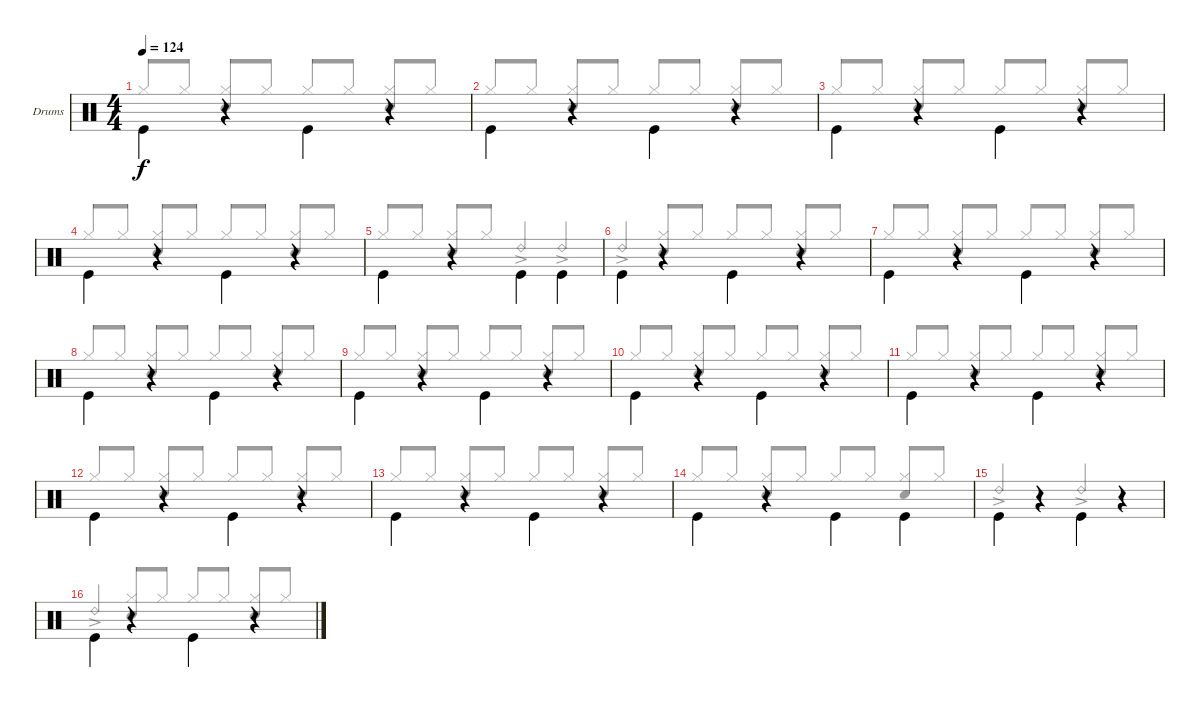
\bracketExtendMode groupsimilarinstruments
\firstSystemTrackNameOrientation horizontal
\otherSystemsTrackNameOrientation horizontal
\track ("Drums" "Drums") {instrument percussion}
\staff {score}
\articulation defaults
\voice
\ts (4 4)
\tempo 124
\clef neutral
\scale
1.02648
\ks c "Kick (hit)".4{dy f beam invert}
r.4 "Kick (hit)".4{beam invert} r.4 |
\scale
0.973518 "Kick (hit)".4{beam invert} r.4 "Kick (hit)".4{beam invert} r.4 |
\scale
1.02648 "Kick (hit)".4{beam invert} r.4 "Kick (hit)".4{beam invert} r.4 |
\scale
0.973518 "Kick (hit)".4{beam invert} r.4 "Kick (hit)".4{beam invert} r.4 |
\scale
1.02648 "Kick (hit)".4{beam invert} r.4 "Kick (hit)".4{beam invert} "Kick (hit)".4{beam invert} |
\scale
0.973518 "Kick (hit)".4{beam invert} r.4 "Kick (hit)".4{beam invert} r.4 |
\scale
1.02648 "Kick (hit)".4{beam invert} r.4 "Kick (hit)".4{beam invert} r.4 |
\scale
0.973518 "Kick (hit)".4{beam invert} r.4 "Kick (hit)".4{beam invert} r.4 |
\scale
1.02648 "Kick (hit)".4{beam invert} r.4 "Kick (hit)".4{beam invert} r.4 |
\scale
0.973518 "Kick (hit)".4{beam invert} r.4 "Kick (hit)".4{beam invert} r.4 |
\scale
1.02648 "Kick (hit)".4{beam invert} r.4 "Kick (hit)".4{beam invert} r.4 |
\scale
0.973518 "Kick (hit)".4{beam invert} r.4 "Kick (hit)".4{beam invert} r.4 |
\scale
1.02648 "Kick (hit)".4{beam invert} r.4 "Kick (hit)".4{beam invert} r.4 |
\scale
0.973518 "Kick (hit)".4{beam invert} r.4 "Kick (hit)".4{beam invert} "Kick (hit)".4{beam invert} |
\scale
1.02648 "Kick (hit)".4{beam invert} r.4 "Kick (hit)".4{beam invert} r.4 |
\scale
0.973518 "Kick (hit)".4{beam invert} r.4 "Kick (hit)".4{beam invert} r.4
\voice
\clef neutral
\ottava regular
\simile none
\scale
1.02648
\ks c "Hi-Hat (closed)".8{dy f beam invert} "Hi-Hat (closed)".8
("Hi-Hat (closed)" "Snare (hit) 2").8{beam invert} "Hi-Hat (closed)".8 "Hi-Hat (closed)".8{beam invert} "Hi-Hat (closed)".8 ("Hi-Hat (closed)" "Snare (hit) 2").8{beam invert} "Hi-Hat (closed)".8 |
\scale
0.973518 "Hi-Hat (closed)".8{beam invert} "Hi-Hat (closed)".8 ("Hi-Hat (closed)" "Snare (hit) 2").8{beam invert} "Hi-Hat (closed)".8 "Hi-Hat (closed)".8{beam invert} "Hi-Hat (closed)".8 ("Hi-Hat (closed)" "Snare (hit) 2").8{beam invert} "Hi-Hat (closed)".8 |
\scale
1.02648 "Hi-Hat (closed)".8{beam invert} "Hi-Hat (closed)".8 ("Hi-Hat (closed)" "Snare (hit) 2").8{beam invert} "Hi-Hat (closed)".8 "Hi-Hat (closed)".8{beam invert} "Hi-Hat (closed)".8 ("Hi-Hat (closed)" "Snare (hit) 2").8{beam invert} "Hi-Hat (closed)".8 |
\scale
0.973518 "Hi-Hat (closed)".8{beam invert} "Hi-Hat (closed)".8 ("Hi-Hat (closed)" "Snare (hit) 2").8{beam invert} "Hi-Hat (closed)".8 "Hi-Hat (closed)".8{beam invert} "Hi-Hat (closed)".8 ("Hi-Hat (closed)" "Snare (hit) 2").8{beam invert} "Hi-Hat (closed)".8 |
\scale
1.02648 "Hi-Hat (closed)".8{beam invert} "Hi-Hat (closed)".8 ("Hi-Hat (closed)" "Snare (hit) 2").8{beam invert} "Hi-Hat (closed)".8 "Ride (bell) 2"{ac}.4{beam invert} "Ride (bell) 2"{ac}.4{beam invert} |
\scale
0.973518 "Ride (bell) 2"{ac}.4{beam invert} ("Hi-Hat (closed)" "Snare (hit) 2").8{beam invert} "Hi-Hat (closed)".8 "Hi-Hat (closed)".8{beam invert} "Hi-Hat (closed)".8 ("Hi-Hat (closed)" "Snare (hit) 2").8{beam invert} "Hi-Hat (closed)".8 |
\scale
1.02648 "Hi-Hat (closed)".8{beam invert} "Hi-Hat (closed)".8 ("Hi-Hat (closed)" "Snare (hit) 2").8{beam invert} "Hi-Hat (closed)".8 "Hi-Hat (closed)".8{beam invert} "Hi-Hat (closed)".8 ("Hi-Hat (closed)" "Snare (hit) 2").8{beam invert} "Hi-Hat (closed)".8 |
\scale
0.973518 "Hi-Hat (closed)".8{beam invert} "Hi-Hat (closed)".8 ("Hi-Hat (closed)" "Snare (hit) 2").8{beam invert} "Hi-Hat (closed)".8 "Hi-Hat (closed)".8{beam invert} "Hi-Hat (closed)".8 ("Hi-Hat (closed)" "Snare (hit) 2").8{beam invert} "Hi-Hat (closed)".8 |
\scale
1.02648 "Hi-Hat (closed)".8{beam invert} "Hi-Hat (closed)".8 ("Hi-Hat (closed)" "Snare (hit) 2").8{beam invert} "Hi-Hat (closed)".8 "Hi-Hat (closed)".8{beam invert} "Hi-Hat (closed)".8 ("Hi-Hat (closed)" "Snare (hit) 2").8{beam invert} "Hi-Hat (closed)".8 |
\scale
0.973518 "Hi-Hat (closed)".8{beam invert} "Hi-Hat (closed)".8 ("Hi-Hat (closed)" "Snare (hit) 2").8{beam invert} "Hi-Hat (closed)".8 "Hi-Hat (closed)".8{beam invert} "Hi-Hat (closed)".8 ("Hi-Hat (closed)" "Snare (hit) 2").8{beam invert} "Hi-Hat (closed)".8 |
\scale
1.02648 "Hi-Hat (closed)".8{beam invert} "Hi-Hat (closed)".8 ("Hi-Hat (closed)" "Snare (hit) 2").8{beam invert} "Hi-Hat (closed)".8 "Hi-Hat (closed)".8{beam invert} "Hi-Hat (closed)".8 ("Hi-Hat (closed)" "Snare (hit) 2").8{beam invert} "Hi-Hat (closed)".8 |
\scale
0.973518 "Hi-Hat (closed)".8{beam invert} "Hi-Hat (closed)".8 ("Hi-Hat (closed)" "Snare (hit) 2").8{beam invert} "Hi-Hat (closed)".8 "Hi-Hat (closed)".8{beam invert} "Hi-Hat (closed)".8 ("Hi-Hat (closed)" "Snare (hit) 2").8{beam invert} "Hi-Hat (closed)".8 |
\scale
1.02648 "Hi-Hat (closed)".8{beam invert} "Hi-Hat (closed)".8 ("Hi-Hat (closed)" "Snare (hit) 2").8{beam invert} "Hi-Hat (closed)".8 "Hi-Hat (closed)".8{beam invert} "Hi-Hat (closed)".8 ("Hi-Hat (closed)" "Snare (hit) 2").8{beam invert} "Hi-Hat (closed)".8 |
\scale
0.973518 "Hi-Hat (closed)".8{beam invert} "Hi-Hat (closed)".8 ("Hi-Hat (closed)" "Snare (hit) 2").8{beam invert} "Hi-Hat (closed)".8 "Hi-Hat (closed)".8{beam invert} "Hi-Hat (closed)".8 ("Hi-Hat (closed)" "Snare (hit) 2").8{beam invert} "Hi-Hat (closed)".8 |
\scale
1.02648 "Ride (bell) 2"{ac}.2{beam invert} "Ride (bell) 2"{ac}.2{beam invert} |
\scale
0.973518 "Ride (bell) 2"{ac}.4{beam invert} ("Hi-Hat (closed)" "Snare (hit) 2").8{beam invert} "Hi-Hat (closed)".8 "Hi-Hat (closed)".8{beam invert} "Hi-Hat (closed)".8 ("Hi-Hat (closed)" "Snare (hit) 2").8{beam invert} "Hi-Hat (closed)".8
